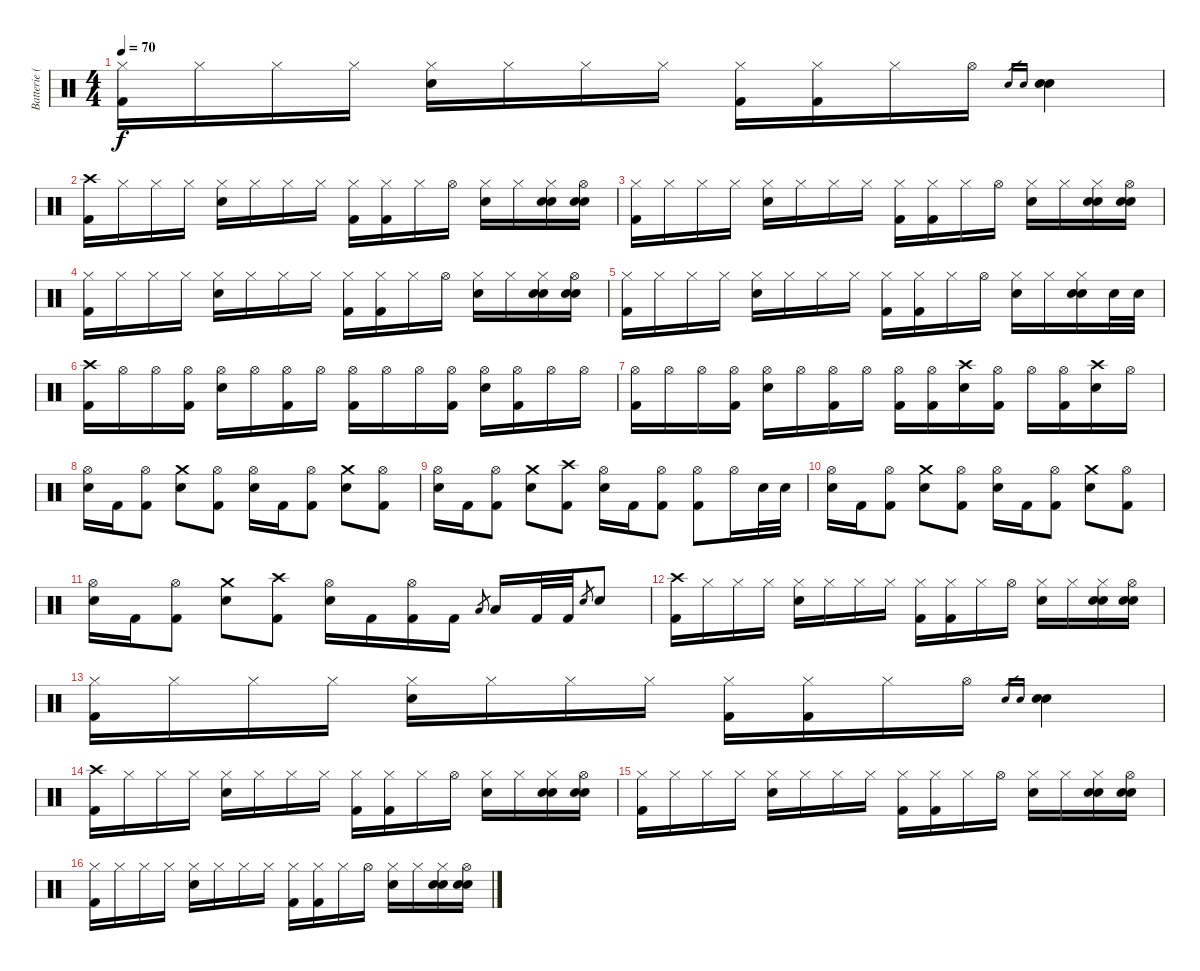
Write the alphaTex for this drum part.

\track ("Batterie (Racci \"Sketchy\" Shay)" "Batterie (") {instrument percussion}
\staff {score}
\articulation defaults
\ts (4 4)
\tempo 70
\clef neutral
\ks c
("Hi-Hat (closed)" "Kick (hit) 2").16{dy f} "Hi-Hat (closed)".16 "Hi-Hat (closed)".16 "Hi-Hat (closed)".16 ("Hi-Hat (closed)" "Electric Snare (hit)").16 "Hi-Hat (closed)".16 "Hi-Hat (closed)".16 "Hi-Hat (closed)".16 ("Hi-Hat (closed)" "Kick (hit) 2").16 ("Hi-Hat (closed)" "Kick (hit) 2").16 "Hi-Hat (closed)".16 "Hi-Hat (open)".16 "Hand Clap (hit)".16{gr} "Electric Snare (hit)".16{gr} ("Hand Clap (hit)" "Electric Snare (hit)").4 |
("Crash high (hit)" "Kick (hit) 2").16 "Hi-Hat (closed)".16 "Hi-Hat (closed)".16 "Hi-Hat (closed)".16 ("Hi-Hat (closed)" "Electric Snare (hit)").16 "Hi-Hat (closed)".16 "Hi-Hat (closed)".16 "Hi-Hat (closed)".16 ("Hi-Hat (closed)" "Kick (hit) 2").16 ("Hi-Hat (closed)" "Kick (hit) 2").16 "Hi-Hat (closed)".16 "Hi-Hat (open)".16 ("Hi-Hat (closed)" "Electric Snare (hit)").16 "Hi-Hat (closed)".16 ("Hi-Hat (closed)" "Hand Clap (hit)" "Electric Snare (hit)").16 ("Hi-Hat (open)" "Hand Clap (hit)" "Electric Snare (hit)").16 |
("Hi-Hat (closed)" "Kick (hit) 2").16 "Hi-Hat (closed)".16 "Hi-Hat (closed)".16 "Hi-Hat (closed)".16 ("Hi-Hat (closed)" "Electric Snare (hit)").16 "Hi-Hat (closed)".16 "Hi-Hat (closed)".16 "Hi-Hat (closed)".16 ("Hi-Hat (closed)" "Kick (hit) 2").16 ("Hi-Hat (closed)" "Kick (hit) 2").16 "Hi-Hat (closed)".16 "Hi-Hat (open)".16 ("Hi-Hat (closed)" "Electric Snare (hit)").16 "Hi-Hat (closed)".16 ("Hi-Hat (closed)" "Hand Clap (hit)" "Electric Snare (hit)").16 ("Hi-Hat (open)" "Hand Clap (hit)" "Electric Snare (hit)").16 |
("Hi-Hat (closed)" "Kick (hit) 2").16 "Hi-Hat (closed)".16 "Hi-Hat (closed)".16 "Hi-Hat (closed)".16 ("Hi-Hat (closed)" "Electric Snare (hit)").16 "Hi-Hat (closed)".16 "Hi-Hat (closed)".16 "Hi-Hat (closed)".16 ("Hi-Hat (closed)" "Kick (hit) 2").16 ("Hi-Hat (closed)" "Kick (hit) 2").16 "Hi-Hat (closed)".16 "Hi-Hat (open)".16 ("Hi-Hat (closed)" "Electric Snare (hit)").16 "Hi-Hat (closed)".16 ("Hi-Hat (closed)" "Hand Clap (hit)" "Electric Snare (hit)").16 ("Hi-Hat (open)" "Hand Clap (hit)" "Electric Snare (hit)").16 |
("Hi-Hat (closed)" "Kick (hit) 2").16 "Hi-Hat (closed)".16 "Hi-Hat (closed)".16 "Hi-Hat (closed)".16 ("Hi-Hat (closed)" "Electric Snare (hit)").16 "Hi-Hat (closed)".16 "Hi-Hat (closed)".16 "Hi-Hat (closed)".16 ("Hi-Hat (closed)" "Kick (hit) 2").16 ("Hi-Hat (closed)" "Kick (hit) 2").16 "Hi-Hat (closed)".16 "Hi-Hat (open)".16 ("Hi-Hat (closed)" "Electric Snare (hit)").16 "Hi-Hat (closed)".16 ("Hi-Hat (closed)" "Hand Clap (hit)" "Electric Snare (hit)").16 "Electric Snare (hit)".32 "Electric Snare (hit)".32 |
("Crash high (hit)" "Kick (hit) 2").16 "Hi-Hat (open)".16 "Hi-Hat (open)".16 ("Hi-Hat (open)" "Kick (hit) 2").16 ("Hi-Hat (open)" "Electric Snare (hit)").16 "Hi-Hat (open)".16 ("Hi-Hat (open)" "Kick (hit) 2").16 "Hi-Hat (open)".16 ("Hi-Hat (open)" "Kick (hit) 2").16 "Hi-Hat (open)".16 "Hi-Hat (open)".16 ("Hi-Hat (open)" "Kick (hit) 2").16 ("Hi-Hat (open)" "Electric Snare (hit)").16 ("Hi-Hat (open)" "Kick (hit) 2").16 "Hi-Hat (open)".16 "Hi-Hat (open)".16 |
("Hi-Hat (open)" "Kick (hit) 2").16 "Hi-Hat (open)".16 "Hi-Hat (open)".16 ("Hi-Hat (open)" "Kick (hit) 2").16 ("Hi-Hat (open)" "Electric Snare (hit)").16 "Hi-Hat (open)".16 ("Hi-Hat (open)" "Kick (hit) 2").16 "Hi-Hat (open)".16 ("Hi-Hat (open)" "Kick (hit) 2").16 ("Hi-Hat (open)" "Kick (hit) 2").16 ("Crash high (hit)" "Electric Snare (hit)").16 ("Hi-Hat (open)" "Kick (hit) 2").16 "Hi-Hat (open)".16 ("Hi-Hat (open)" "Kick (hit) 2").16 ("Crash high (hit)" "Electric Snare (hit)").16 "Hi-Hat (open)".16 |
("Hi-Hat (open)" "Electric Snare (hit)").16 "Kick (hit) 2".16 ("Hi-Hat (open)" "Kick (hit) 2").8 ("Crash medium (hit)" "Electric Snare (hit)").8 ("Hi-Hat (open)" "Kick (hit) 2").8 ("Hi-Hat (open)" "Electric Snare (hit)").16 "Kick (hit) 2".16 ("Hi-Hat (open)" "Kick (hit) 2").8 ("Crash medium (hit)" "Electric Snare (hit)").8 ("Hi-Hat (open)" "Kick (hit) 2").8 |
("Hi-Hat (open)" "Electric Snare (hit)").16 "Kick (hit) 2".16 ("Hi-Hat (open)" "Kick (hit) 2").8 ("Crash medium (hit)" "Electric Snare (hit)").8 ("Crash high (hit)" "Kick (hit) 2").8 ("Hi-Hat (open)" "Electric Snare (hit)").16 "Kick (hit) 2".16 ("Hi-Hat (open)" "Kick (hit) 2").8 ("Hi-Hat (open)" "Kick (hit) 2").8 "Hi-Hat (open)".16 "Electric Snare (hit)".32 "Electric Snare (hit)".32 |
("Hi-Hat (open)" "Electric Snare (hit)").16 "Kick (hit) 2".16 ("Hi-Hat (open)" "Kick (hit) 2").8 ("Crash medium (hit)" "Electric Snare (hit)").8 ("Hi-Hat (open)" "Kick (hit) 2").8 ("Hi-Hat (open)" "Electric Snare (hit)").16 "Kick (hit) 2".16 ("Hi-Hat (open)" "Kick (hit) 2").8 ("Crash medium (hit)" "Electric Snare (hit)").8 ("Hi-Hat (open)" "Kick (hit) 2").8 |
("Hi-Hat (open)" "Electric Snare (hit)").16 "Kick (hit) 2".16 ("Hi-Hat (open)" "Kick (hit) 2").8 ("Crash medium (hit)" "Electric Snare (hit)").8 ("Crash high (hit)" "Kick (hit) 2").8 ("Hi-Hat (open)" "Electric Snare (hit)").16 "Kick (hit) 2".16 ("Hi-Hat (open)" "Kick (hit) 2").16 "Kick (hit) 2".16 "Low Floor Tom (hit)".8{gr} "Low Floor Tom (hit)".16 "Kick (hit) 2".32 "Kick (hit) 2".32 "Electric Snare (hit)".8{gr} "Electric Snare (hit)".8 |
("Crash high (hit)" "Kick (hit) 2").16 "Hi-Hat (closed)".16 "Hi-Hat (closed)".16 "Hi-Hat (closed)".16 ("Hi-Hat (closed)" "Electric Snare (hit)").16 "Hi-Hat (closed)".16 "Hi-Hat (closed)".16 "Hi-Hat (closed)".16 ("Hi-Hat (closed)" "Kick (hit) 2").16 ("Hi-Hat (closed)" "Kick (hit) 2").16 "Hi-Hat (closed)".16 "Hi-Hat (open)".16 ("Hi-Hat (closed)" "Electric Snare (hit)").16 "Hi-Hat (closed)".16 ("Hi-Hat (closed)" "Hand Clap (hit)" "Electric Snare (hit)").16 ("Hi-Hat (open)" "Hand Clap (hit)" "Electric Snare (hit)").16 |
("Hi-Hat (closed)" "Kick (hit) 2").16 "Hi-Hat (closed)".16 "Hi-Hat (closed)".16 "Hi-Hat (closed)".16 ("Hi-Hat (closed)" "Electric Snare (hit)").16 "Hi-Hat (closed)".16 "Hi-Hat (closed)".16 "Hi-Hat (closed)".16 ("Hi-Hat (closed)" "Kick (hit) 2").16 ("Hi-Hat (closed)" "Kick (hit) 2").16 "Hi-Hat (closed)".16 "Hi-Hat (open)".16 "Hand Clap (hit)".16{gr} "Electric Snare (hit)".16{gr} ("Hand Clap (hit)" "Electric Snare (hit)").4 |
("Crash high (hit)" "Kick (hit) 2").16 "Hi-Hat (closed)".16 "Hi-Hat (closed)".16 "Hi-Hat (closed)".16 ("Hi-Hat (closed)" "Electric Snare (hit)").16 "Hi-Hat (closed)".16 "Hi-Hat (closed)".16 "Hi-Hat (closed)".16 ("Hi-Hat (closed)" "Kick (hit) 2").16 ("Hi-Hat (closed)" "Kick (hit) 2").16 "Hi-Hat (closed)".16 "Hi-Hat (open)".16 ("Hi-Hat (closed)" "Electric Snare (hit)").16 "Hi-Hat (closed)".16 ("Hi-Hat (closed)" "Hand Clap (hit)" "Electric Snare (hit)").16 ("Hi-Hat (open)" "Hand Clap (hit)" "Electric Snare (hit)").16 |
("Hi-Hat (closed)" "Kick (hit) 2").16 "Hi-Hat (closed)".16 "Hi-Hat (closed)".16 "Hi-Hat (closed)".16 ("Hi-Hat (closed)" "Electric Snare (hit)").16 "Hi-Hat (closed)".16 "Hi-Hat (closed)".16 "Hi-Hat (closed)".16 ("Hi-Hat (closed)" "Kick (hit) 2").16 ("Hi-Hat (closed)" "Kick (hit) 2").16 "Hi-Hat (closed)".16 "Hi-Hat (open)".16 ("Hi-Hat (closed)" "Electric Snare (hit)").16 "Hi-Hat (closed)".16 ("Hi-Hat (closed)" "Hand Clap (hit)" "Electric Snare (hit)").16 ("Hi-Hat (open)" "Hand Clap (hit)" "Electric Snare (hit)").16 |
("Hi-Hat (closed)" "Kick (hit) 2").16 "Hi-Hat (closed)".16 "Hi-Hat (closed)".16 "Hi-Hat (closed)".16 ("Hi-Hat (closed)" "Electric Snare (hit)").16 "Hi-Hat (closed)".16 "Hi-Hat (closed)".16 "Hi-Hat (closed)".16 ("Hi-Hat (closed)" "Kick (hit) 2").16 ("Hi-Hat (closed)" "Kick (hit) 2").16 "Hi-Hat (closed)".16 "Hi-Hat (open)".16 ("Hi-Hat (closed)" "Electric Snare (hit)").16 "Hi-Hat (closed)".16 ("Hi-Hat (closed)" "Hand Clap (hit)" "Electric Snare (hit)").16 ("Hi-Hat (open)" "Hand Clap (hit)" "Electric Snare (hit)").16
